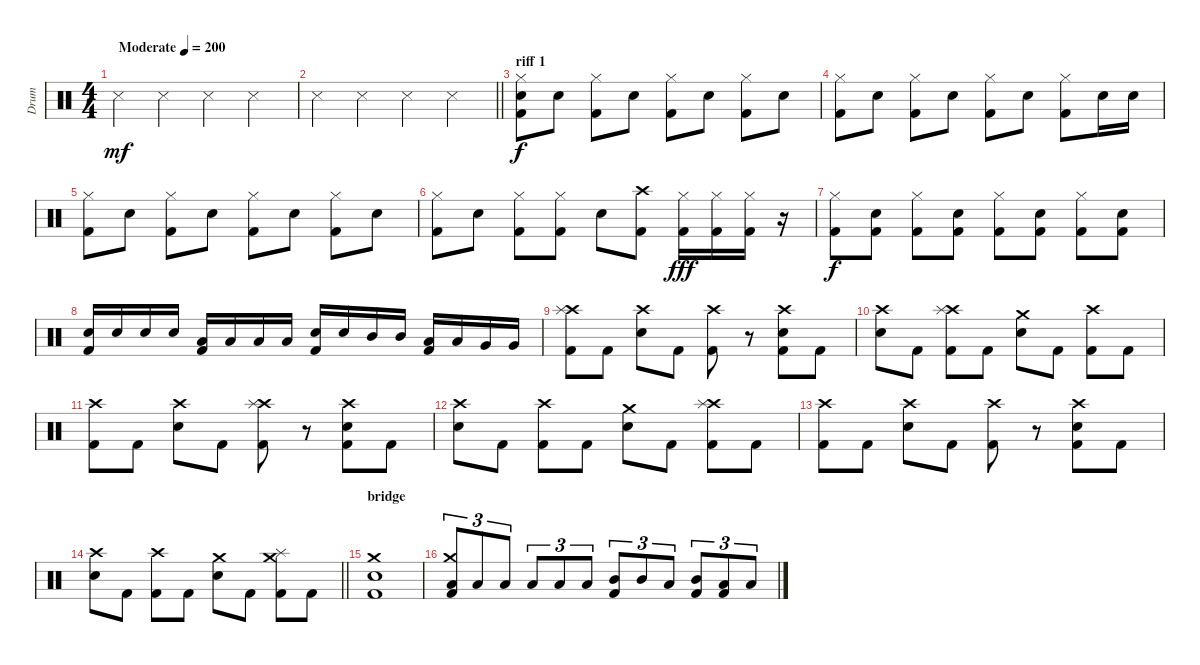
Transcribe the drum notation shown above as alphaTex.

\track ("Drum" "Drum") {instrument percussion}
\staff {score}
\articulation defaults
\ts (4 4)
\section ("" "")
\tempo (200 "Moderate")
\clef neutral
\ks c "Metronome (hit)".4{dy mf} "Metronome (hit)".4 "Metronome (hit)".4 "Metronome (hit)".4
|
\barLineRight lightlight "Metronome (hit)".4 "Metronome (hit)".4 "Metronome (hit)".4 "Metronome (hit)".4
|
\section ("" "riff 1")
("Hi-Hat (closed)" "Electric Snare (hit)" "Kick (hit) 2").8{dy f} "Electric Snare (hit)".8 ("Hi-Hat (closed)" "Kick (hit) 2").8 "Electric Snare (hit)".8 ("Hi-Hat (closed)" "Kick (hit) 2").8 "Electric Snare (hit)".8 ("Hi-Hat (closed)" "Kick (hit) 2").8 "Electric Snare (hit)".8 |
("Hi-Hat (closed)" "Kick (hit) 2").8 "Electric Snare (hit)".8 ("Hi-Hat (closed)" "Kick (hit) 2").8 "Electric Snare (hit)".8 ("Hi-Hat (closed)" "Kick (hit) 2").8 "Electric Snare (hit)".8 ("Hi-Hat (closed)" "Kick (hit) 2").8 "Electric Snare (hit)".16 "Electric Snare (hit)".16 |
("Hi-Hat (closed)" "Kick (hit) 2").8 "Electric Snare (hit)".8 ("Hi-Hat (closed)" "Kick (hit) 2").8 "Electric Snare (hit)".8 ("Hi-Hat (closed)" "Kick (hit) 2").8 "Electric Snare (hit)".8 ("Hi-Hat (closed)" "Kick (hit) 2").8 "Electric Snare (hit)".8 |
("Hi-Hat (closed)" "Kick (hit) 2").8 "Electric Snare (hit)".8 ("Hi-Hat (closed)" "Kick (hit) 2").8 ("Hi-Hat (closed)" "Kick (hit) 2").8 "Electric Snare (hit)".8 ("Crash high (hit)" "Kick (hit) 2").8 ("Hi-Hat (closed)" "Kick (hit) 2").16{dy fff} ("Hi-Hat (closed)" "Kick (hit) 2").16 ("Hi-Hat (closed)" "Kick (hit) 2").16 r.16 |
("Hi-Hat (closed)" "Kick (hit) 2").8{dy f} ("Electric Snare (hit)" "Kick (hit) 2").8 ("Hi-Hat (closed)" "Kick (hit) 2").8 ("Electric Snare (hit)" "Kick (hit) 2").8 ("Hi-Hat (closed)" "Kick (hit) 2").8 ("Electric Snare (hit)" "Kick (hit) 2").8 ("Hi-Hat (closed)" "Kick (hit) 2").8 ("Electric Snare (hit)" "Kick (hit) 2").8 |
("Electric Snare (hit)" "Kick (hit) 2").16 "Electric Snare (hit)".16 "Electric Snare (hit)".16 "Electric Snare (hit)".16 ("Low Tom (hit)" "Kick (hit) 2").16 "Low Tom (hit)".16 "Low Tom (hit)".16 "Low Tom (hit)".16 ("Electric Snare (hit)" "Kick (hit) 2").16 "Electric Snare (hit)".16 "Mid Tom (hit)".16 "Mid Tom (hit)".16 ("Low Tom (hit)" "Kick (hit) 2").16 "Low Tom (hit)".16 "Very Low Tom (hit)".16 "Very Low Tom (hit)".16 |
("Crash high (hit)" "Splash (hit)" "Kick (hit) 2").8 "Kick (hit) 2".8 ("Crash high (hit)" "Electric Snare (hit)").8 "Kick (hit) 2".8 ("Crash high (hit)" "Kick (hit) 2").8 r.8 ("Crash high (hit)" "Electric Snare (hit)" "Kick (hit) 2").8 "Kick (hit) 2".8 |
("Crash high (hit)" "Electric Snare (hit)").8 "Kick (hit) 2".8 ("Crash high (hit)" "Splash (hit)" "Kick (hit) 2").8 "Kick (hit) 2".8 ("Crash medium (hit)" "Electric Snare (hit)").8 "Kick (hit) 2".8 ("Crash high (hit)" "Kick (hit) 2").8 "Kick (hit) 2".8 |
("Crash high (hit)" "Kick (hit) 2").8 "Kick (hit) 2".8 ("Crash high (hit)" "Electric Snare (hit)").8 "Kick (hit) 2".8 ("Crash high (hit)" "Splash (hit)" "Kick (hit) 2").8 r.8 ("Crash high (hit)" "Electric Snare (hit)" "Kick (hit) 2").8 "Kick (hit) 2".8 |
("Crash high (hit)" "Electric Snare (hit)").8 "Kick (hit) 2".8 ("Crash high (hit)" "Kick (hit) 2").8 "Kick (hit) 2".8 ("Crash medium (hit)" "Electric Snare (hit)").8 "Kick (hit) 2".8 ("Crash high (hit)" "Splash (hit)" "Kick (hit) 2").8 "Kick (hit) 2".8 |
("Crash high (hit)" "Kick (hit) 2").8 "Kick (hit) 2".8 ("Crash high (hit)" "Electric Snare (hit)").8 "Kick (hit) 2".8 ("Crash high (hit)" "Kick (hit) 2").8 r.8 ("Crash high (hit)" "Electric Snare (hit)" "Kick (hit) 2").8 "Kick (hit) 2".8 |
\barLineRight lightlight
("Crash high (hit)" "Electric Snare (hit)").8 "Kick (hit) 2".8 ("Crash high (hit)" "Kick (hit) 2").8 "Kick (hit) 2".8 ("Crash medium (hit)" "Electric Snare (hit)").8 "Kick (hit) 2".8 ("Crash medium (hit)" "Splash (hit)" "Kick (hit) 2").8 "Kick (hit) 2".8 |
\section ("" "bridge")
("Crash medium (hit)" "Electric Snare (hit)" "Kick (hit) 2").1 |
("Crash medium (hit)" "Low Floor Tom (hit)" "Kick (hit) 2").8{tu (3 2)} "Low Floor Tom (hit)".8{tu (3 2)} "Low Floor Tom (hit)".8{tu (3 2)} "Low Floor Tom (hit)".8{tu (3 2)} "Low Floor Tom (hit)".8{tu (3 2)} "Low Floor Tom (hit)".8{tu (3 2)} ("Mid Tom (hit)" "Kick (hit) 2").8{tu (3 2)} "Mid Tom (hit)".8{tu (3 2)} "Low Tom (hit)".8{tu (3 2)} ("Mid Tom (hit)" "Kick (hit) 2").8{tu (3 2)} ("Low Tom (hit)" "Kick (hit) 2").8{tu (3 2)} "Low Tom (hit)".8{tu (3 2)}
